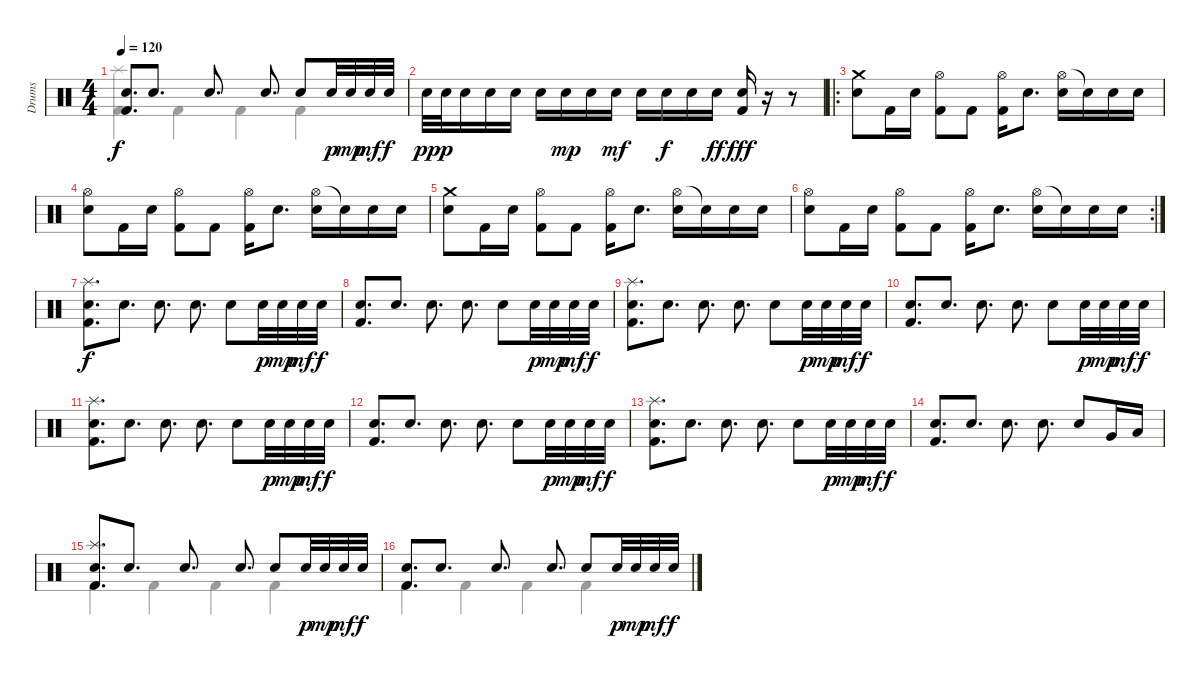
\track ("Drums" "Drums") {instrument percussion}
\staff {score}
\articulation defaults
\voice
\ts (4 4)
\tempo 120
\clef neutral
\ks c
("Electric Snare (hit)" "Kick (hit) 2").8{d dy f} "Electric Snare (hit)".8{d} "Electric Snare (hit)".8{d} "Electric Snare (hit)".8{d} "Electric Snare (hit)".8 "Electric Snare (hit)".32{dy p} "Electric Snare (hit)".32{dy mp} "Electric Snare (hit)".32{dy mf} "Electric Snare (hit)".32{dy f} |
"Electric Snare (hit)".32{dy pp} "Electric Snare (hit)".32{dy p} "Electric Snare (hit)".16 "Electric Snare (hit)".16 "Electric Snare (hit)".16 "Electric Snare (hit)".16 "Electric Snare (hit)".16{dy mp} "Electric Snare (hit)".16 "Electric Snare (hit)".16{dy mf} "Electric Snare (hit)".16 "Electric Snare (hit)".16{dy f} "Electric Snare (hit)".16 "Electric Snare (hit)".16{dy ff} ("Electric Snare (hit)" "Kick (hit) 2").16{dy fff} r.16 r.8 |
\ro
("Crash medium (hit)" "Electric Snare (hit)").8 "Kick (hit) 2".16 "Electric Snare (hit)".16 ("Hi-Hat (open)" "Kick (hit) 2").8 "Kick (hit) 2".8 ("Hi-Hat (open)" "Kick (hit) 2").16 "Electric Snare (hit)".8{d} ("Hi-Hat (open)" "Electric Snare (hit)").16 "Electric Snare (hit)"{t}.16 "Electric Snare (hit)".16 "Electric Snare (hit)".16 |
("Hi-Hat (open)" "Electric Snare (hit)").8 "Kick (hit) 2".16 "Electric Snare (hit)".16 ("Hi-Hat (open)" "Kick (hit) 2").8 "Kick (hit) 2".8 ("Hi-Hat (open)" "Kick (hit) 2").16 "Electric Snare (hit)".8{d} ("Hi-Hat (open)" "Electric Snare (hit)").16 "Electric Snare (hit)"{t}.16 "Electric Snare (hit)".16 "Electric Snare (hit)".16 |
("Crash medium (hit)" "Electric Snare (hit)").8 "Kick (hit) 2".16 "Electric Snare (hit)".16 ("Hi-Hat (open)" "Kick (hit) 2").8 "Kick (hit) 2".8 ("Hi-Hat (open)" "Kick (hit) 2").16 "Electric Snare (hit)".8{d} ("Hi-Hat (open)" "Electric Snare (hit)").16 "Electric Snare (hit)"{t}.16 "Electric Snare (hit)".16 "Electric Snare (hit)".16 |
\rc 2
("Hi-Hat (open)" "Electric Snare (hit)").8 "Kick (hit) 2".16 "Electric Snare (hit)".16 ("Hi-Hat (open)" "Kick (hit) 2").8 "Kick (hit) 2".8 ("Hi-Hat (open)" "Kick (hit) 2").16 "Electric Snare (hit)".8{d} ("Hi-Hat (open)" "Electric Snare (hit)").16 "Electric Snare (hit)"{t}.16 "Electric Snare (hit)".16 "Electric Snare (hit)".16 |
("Splash (hit)" "Electric Snare (hit)" "Kick (hit) 2").8{d dy f} "Electric Snare (hit)".8{d} "Electric Snare (hit)".8{d} "Electric Snare (hit)".8{d} "Electric Snare (hit)".8 "Electric Snare (hit)".32{dy p} "Electric Snare (hit)".32{dy mp} "Electric Snare (hit)".32{dy mf} "Electric Snare (hit)".32{dy f} |
("Electric Snare (hit)" "Kick (hit) 2").8{d} "Electric Snare (hit)".8{d} "Electric Snare (hit)".8{d} "Electric Snare (hit)".8{d} "Electric Snare (hit)".8 "Electric Snare (hit)".32{dy p} "Electric Snare (hit)".32{dy mp} "Electric Snare (hit)".32{dy mf} "Electric Snare (hit)".32{dy f} |
("Splash (hit)" "Electric Snare (hit)" "Kick (hit) 2").8{d} "Electric Snare (hit)".8{d} "Electric Snare (hit)".8{d} "Electric Snare (hit)".8{d} "Electric Snare (hit)".8 "Electric Snare (hit)".32{dy p} "Electric Snare (hit)".32{dy mp} "Electric Snare (hit)".32{dy mf} "Electric Snare (hit)".32{dy f} |
("Electric Snare (hit)" "Kick (hit) 2").8{d} "Electric Snare (hit)".8{d} "Electric Snare (hit)".8{d} "Electric Snare (hit)".8{d} "Electric Snare (hit)".8 "Electric Snare (hit)".32{dy p} "Electric Snare (hit)".32{dy mp} "Electric Snare (hit)".32{dy mf} "Electric Snare (hit)".32{dy f} |
("Splash (hit)" "Electric Snare (hit)" "Kick (hit) 2").8{d} "Electric Snare (hit)".8{d} "Electric Snare (hit)".8{d} "Electric Snare (hit)".8{d} "Electric Snare (hit)".8 "Electric Snare (hit)".32{dy p} "Electric Snare (hit)".32{dy mp} "Electric Snare (hit)".32{dy mf} "Electric Snare (hit)".32{dy f} |
("Electric Snare (hit)" "Kick (hit) 2").8{d} "Electric Snare (hit)".8{d} "Electric Snare (hit)".8{d} "Electric Snare (hit)".8{d} "Electric Snare (hit)".8 "Electric Snare (hit)".32{dy p} "Electric Snare (hit)".32{dy mp} "Electric Snare (hit)".32{dy mf} "Electric Snare (hit)".32{dy f} |
("Splash (hit)" "Electric Snare (hit)" "Kick (hit) 2").8{d} "Electric Snare (hit)".8{d} "Electric Snare (hit)".8{d} "Electric Snare (hit)".8{d} "Electric Snare (hit)".8 "Electric Snare (hit)".32{dy p} "Electric Snare (hit)".32{dy mp} "Electric Snare (hit)".32{dy mf} "Electric Snare (hit)".32{dy f} |
("Electric Snare (hit)" "Kick (hit) 2").8{d} "Electric Snare (hit)".8{d} "Electric Snare (hit)".8{d} "Electric Snare (hit)".8{d} "Electric Snare (hit)".8 "Very Low Tom (hit)".16 "Low Floor Tom (hit)".16 |
("Splash (hit)" "Electric Snare (hit)" "Kick (hit) 2").8{d} "Electric Snare (hit)".8{d} "Electric Snare (hit)".8{d} "Electric Snare (hit)".8{d} "Electric Snare (hit)".8 "Electric Snare (hit)".32{dy p} "Electric Snare (hit)".32{dy mp} "Electric Snare (hit)".32{dy mf} "Electric Snare (hit)".32{dy f} |
("Electric Snare (hit)" "Kick (hit) 2").8{d} "Electric Snare (hit)".8{d} "Electric Snare (hit)".8{d} "Electric Snare (hit)".8{d} "Electric Snare (hit)".8 "Electric Snare (hit)".32{dy p} "Electric Snare (hit)".32{dy mp} "Electric Snare (hit)".32{dy mf} "Electric Snare (hit)".32{dy f}
\voice
\clef neutral
\ottava regular
\simile none
\ks c
("Splash (hit)" "Kick (hit) 2").4{dy f} "Kick (hit) 2".4 "Kick (hit) 2".4 "Kick (hit) 2".4 |
|
|
|
|
|
|
|
|
|
|
|
|
|
"Kick (hit) 2".4 "Kick (hit) 2".4 "Kick (hit) 2".4 "Kick (hit) 2".4 |
"Kick (hit) 2".4 "Kick (hit) 2".4 "Kick (hit) 2".4 "Kick (hit) 2".4
